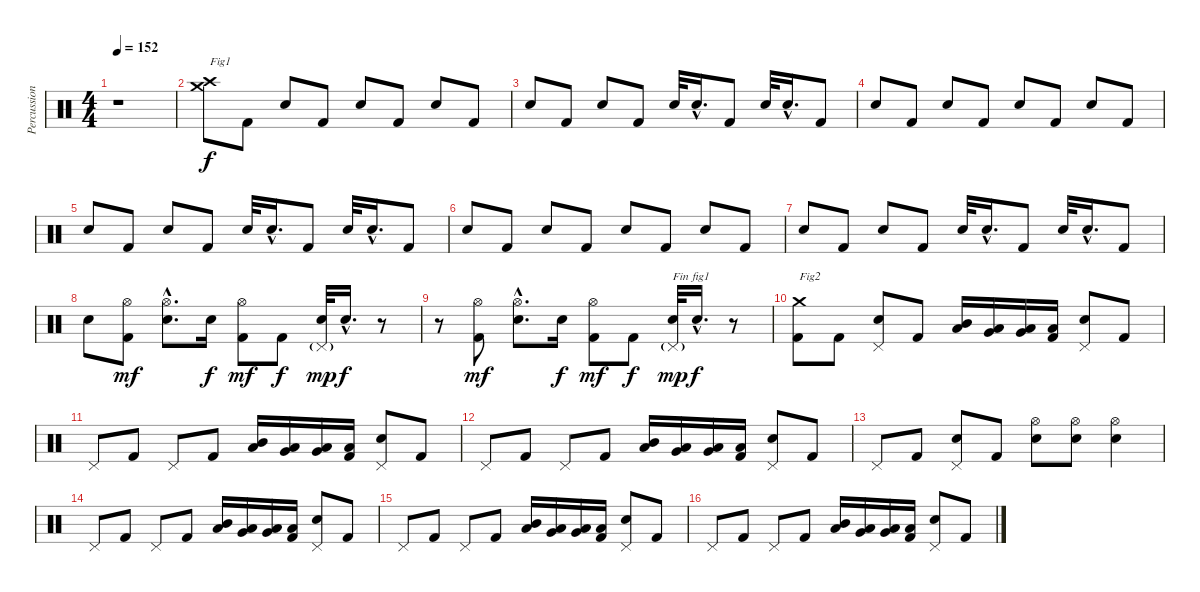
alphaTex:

\track ("Percussions" "Percussion") {instrument percussion}
\staff {score}
\articulation defaults
\ts (4 4)
\tempo 152
\clef neutral
\ks c
r.1{dy f} |
("Crash medium (hit)" "Crash high (hit)").8{txt "Fig1"} "Kick (hit) 2".8 "Electric Snare (hit)".8 "Kick (hit) 2".8 "Electric Snare (hit)".8 "Kick (hit) 2".8 "Electric Snare (hit)".8 "Kick (hit) 2".8 |
"Electric Snare (hit)".8 "Kick (hit) 2".8 "Electric Snare (hit)".8 "Kick (hit) 2".8 "Electric Snare (hit)".32 "Electric Snare (hit)"{hac}.16{d} "Kick (hit) 2".8 "Electric Snare (hit)".32 "Electric Snare (hit)"{hac}.16{d} "Kick (hit) 2".8 |
"Electric Snare (hit)".8 "Kick (hit) 2".8 "Electric Snare (hit)".8 "Kick (hit) 2".8 "Electric Snare (hit)".8 "Kick (hit) 2".8 "Electric Snare (hit)".8 "Kick (hit) 2".8 |
"Electric Snare (hit)".8 "Kick (hit) 2".8 "Electric Snare (hit)".8 "Kick (hit) 2".8 "Electric Snare (hit)".32 "Electric Snare (hit)"{hac}.16{d} "Kick (hit) 2".8 "Electric Snare (hit)".32 "Electric Snare (hit)"{hac}.16{d} "Kick (hit) 2".8 |
"Electric Snare (hit)".8 "Kick (hit) 2".8 "Electric Snare (hit)".8 "Kick (hit) 2".8 "Electric Snare (hit)".8 "Kick (hit) 2".8 "Electric Snare (hit)".8 "Kick (hit) 2".8 |
"Electric Snare (hit)".8 "Kick (hit) 2".8 "Electric Snare (hit)".8 "Kick (hit) 2".8 "Electric Snare (hit)".32 "Electric Snare (hit)"{hac}.16{d} "Kick (hit) 2".8 "Electric Snare (hit)".32 "Electric Snare (hit)"{hac}.16{d} "Kick (hit) 2".8 |
"Electric Snare (hit)".8 ("Kick (hit) 2" "Hi-Hat (open)").8{dy mf} ("Electric Snare (hit)"{hac} "Hi-Hat (open)"{hac}).8{d} "Electric Snare (hit)".16{dy f} ("Kick (hit) 2" "Hi-Hat (open)").8{dy mf} "Kick (hit) 2".8{dy f} ("Electric Snare (hit)" "Pedal Hi-Hat (hit)"{g}).32{dy mp} "Electric Snare (hit)"{hac}.16{d dy f} r.8 |
r.8 ("Kick (hit) 2" "Hi-Hat (open)").8{dy mf} ("Electric Snare (hit)"{hac} "Hi-Hat (open)"{hac}).8{d} "Electric Snare (hit)".16{dy f} ("Kick (hit) 2" "Hi-Hat (open)").8{dy mf} "Kick (hit) 2".8{dy f} ("Electric Snare (hit)" "Pedal Hi-Hat (hit)"{g}).32{txt "Fin fig1" dy mp} "Electric Snare (hit)"{hac}.16{d dy f} r.8 |
("Kick (hit) 2" "Crash medium (hit)").8{txt "Fig2"} "Kick (hit) 2".8 ("Electric Snare (hit)" "Pedal Hi-Hat (hit)").8 "Kick (hit) 2".8 ("Low Tom (hit)" "Mid Tom (hit)").16 ("Low Tom (hit)" "Very Low Tom (hit)").16 ("Low Floor Tom (hit)" "Very Low Tom (hit)").16 ("Kick (hit) 2" "Low Floor Tom (hit)").16 ("Electric Snare (hit)" "Pedal Hi-Hat (hit)").8 "Kick (hit) 2".8 |
"Pedal Hi-Hat (hit)".8 "Kick (hit) 2".8 "Pedal Hi-Hat (hit)".8 "Kick (hit) 2".8 ("Low Tom (hit)" "Mid Tom (hit)").16 ("Low Tom (hit)" "Very Low Tom (hit)").16 ("Low Floor Tom (hit)" "Very Low Tom (hit)").16 ("Kick (hit) 2" "Low Floor Tom (hit)").16 ("Electric Snare (hit)" "Pedal Hi-Hat (hit)").8 "Kick (hit) 2".8 |
"Pedal Hi-Hat (hit)".8 "Kick (hit) 2".8 "Pedal Hi-Hat (hit)".8 "Kick (hit) 2".8 ("Low Tom (hit)" "Mid Tom (hit)").16 ("Low Tom (hit)" "Very Low Tom (hit)").16 ("Low Floor Tom (hit)" "Very Low Tom (hit)").16 ("Kick (hit) 2" "Low Floor Tom (hit)").16 ("Electric Snare (hit)" "Pedal Hi-Hat (hit)").8 "Kick (hit) 2".8 |
"Pedal Hi-Hat (hit)".8 "Kick (hit) 2".8 ("Electric Snare (hit)" "Pedal Hi-Hat (hit)").8 "Kick (hit) 2".8 ("Electric Snare (hit)" "Hi-Hat (open)").8 ("Electric Snare (hit)" "Hi-Hat (open)").8 ("Electric Snare (hit)" "Hi-Hat (open)").4 |
"Pedal Hi-Hat (hit)".8 "Kick (hit) 2".8 "Pedal Hi-Hat (hit)".8 "Kick (hit) 2".8 ("Low Tom (hit)" "Mid Tom (hit)").16 ("Low Tom (hit)" "Very Low Tom (hit)").16 ("Low Floor Tom (hit)" "Very Low Tom (hit)").16 ("Kick (hit) 2" "Low Floor Tom (hit)").16 ("Electric Snare (hit)" "Pedal Hi-Hat (hit)").8 "Kick (hit) 2".8 |
"Pedal Hi-Hat (hit)".8 "Kick (hit) 2".8 "Pedal Hi-Hat (hit)".8 "Kick (hit) 2".8 ("Low Tom (hit)" "Mid Tom (hit)").16 ("Low Tom (hit)" "Very Low Tom (hit)").16 ("Low Floor Tom (hit)" "Very Low Tom (hit)").16 ("Kick (hit) 2" "Low Floor Tom (hit)").16 ("Electric Snare (hit)" "Pedal Hi-Hat (hit)").8 "Kick (hit) 2".8 |
"Pedal Hi-Hat (hit)".8 "Kick (hit) 2".8 "Pedal Hi-Hat (hit)".8 "Kick (hit) 2".8 ("Low Tom (hit)" "Mid Tom (hit)").16 ("Low Tom (hit)" "Very Low Tom (hit)").16 ("Low Floor Tom (hit)" "Very Low Tom (hit)").16 ("Kick (hit) 2" "Low Floor Tom (hit)").16 ("Electric Snare (hit)" "Pedal Hi-Hat (hit)").8 "Kick (hit) 2".8
